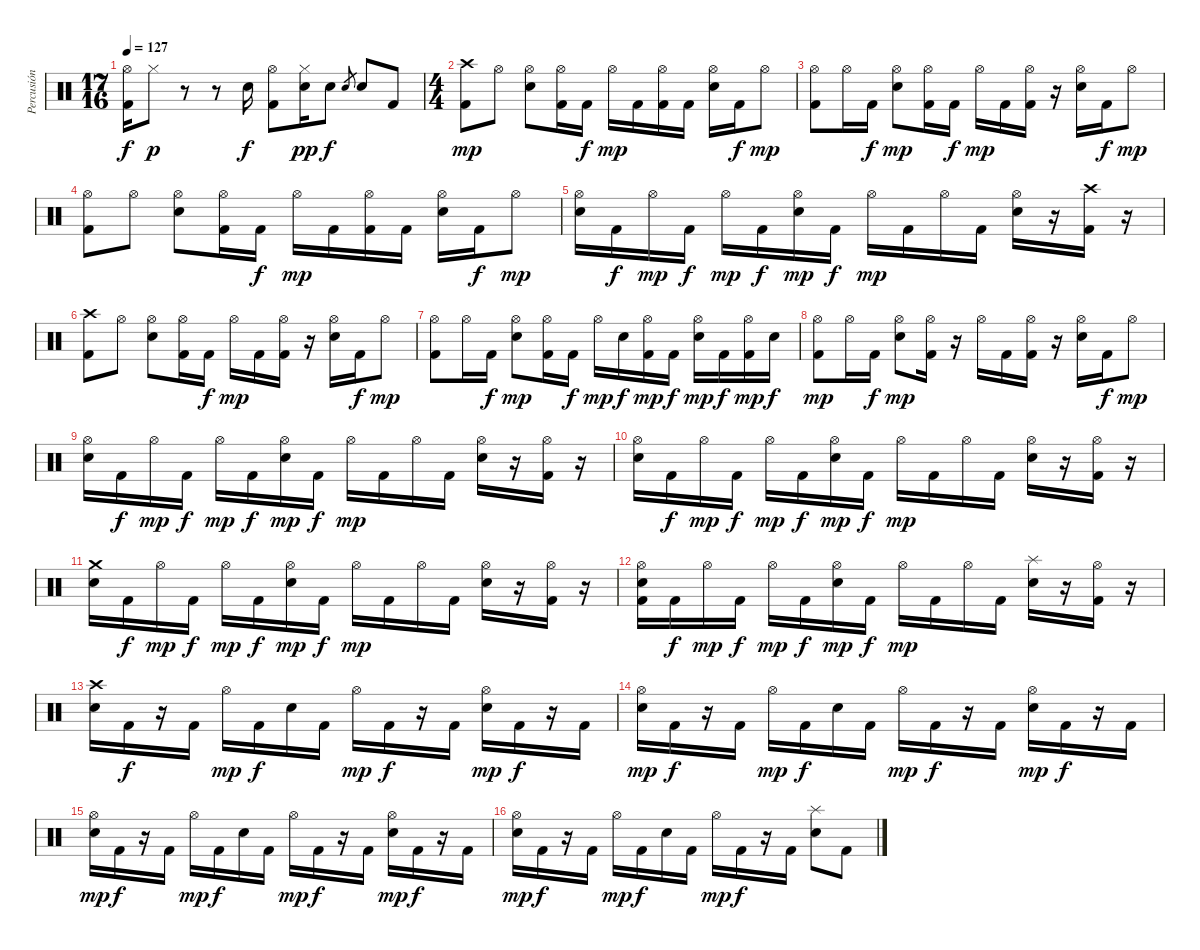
\track ("Percusión" "Percusión") {instrument percussion}
\staff {score}
\articulation defaults
\ts (17 16)
\tempo 127
\clef neutral
\ks c
("Hi-Hat (open)" "Kick (hit) 2").16{dy f} "Hi-Hat (closed)".8{dy p} r.8 r.8 "Electric Snare (hit)".16{dy f} ("Hi-Hat (open)" "Kick (hit) 2").8 ("Hi-Hat (closed)" "Electric Snare (hit)").16{dy pp} "Electric Snare (hit)".8{dy f} "Electric Snare (hit)".8{gr} "Electric Snare (hit)".8 "Kick (hit) 2".8 |
\ts (4 4)
("Crash high (hit)" "Kick (hit) 2").8{dy mp} "Hi-Hat (open)".8 ("Hi-Hat (open)" "Electric Snare (hit)").8 ("Hi-Hat (open)" "Kick (hit) 2").16 "Kick (hit) 2".16{dy f} "Hi-Hat (open)".16{dy mp} "Kick (hit) 2".16 ("Hi-Hat (open)" "Kick (hit) 2").16 "Kick (hit) 2".16 ("Hi-Hat (open)" "Electric Snare (hit)").16 "Kick (hit) 2".16{dy f} "Hi-Hat (open)".8{dy mp} |
("Hi-Hat (open)" "Kick (hit) 2").8 "Hi-Hat (open)".16 "Kick (hit) 2".16{dy f} ("Hi-Hat (open)" "Electric Snare (hit)").8{dy mp} ("Hi-Hat (open)" "Kick (hit) 2").16 "Kick (hit) 2".16{dy f} "Hi-Hat (open)".16{dy mp} "Kick (hit) 2".16 ("Hi-Hat (open)" "Kick (hit) 2").16 r.16 ("Hi-Hat (open)" "Electric Snare (hit)").16 "Kick (hit) 2".16{dy f} "Hi-Hat (open)".8{dy mp} |
("Hi-Hat (open)" "Kick (hit) 2").8 "Hi-Hat (open)".8 ("Hi-Hat (open)" "Electric Snare (hit)").8 ("Hi-Hat (open)" "Kick (hit) 2").16 "Kick (hit) 2".16{dy f} "Hi-Hat (open)".16{dy mp} "Kick (hit) 2".16 ("Hi-Hat (open)" "Kick (hit) 2").16 "Kick (hit) 2".16 ("Hi-Hat (open)" "Electric Snare (hit)").16 "Kick (hit) 2".16{dy f} "Hi-Hat (open)".8{dy mp} |
("Hi-Hat (open)" "Electric Snare (hit)").16 "Kick (hit) 2".16{dy f} "Hi-Hat (open)".16{dy mp} "Kick (hit) 2".16{dy f} "Hi-Hat (open)".16{dy mp} "Kick (hit) 2".16{dy f} ("Hi-Hat (open)" "Electric Snare (hit)").16{dy mp} "Kick (hit) 2".16{dy f} "Hi-Hat (open)".16{dy mp} "Kick (hit) 2".16 "Hi-Hat (open)".16 "Kick (hit) 2".16 ("Hi-Hat (open)" "Electric Snare (hit)").16 r.16 ("Crash high (hit)" "Kick (hit) 2").16 r.16 |
("Crash high (hit)" "Kick (hit) 2").8 "Hi-Hat (open)".8 ("Hi-Hat (open)" "Electric Snare (hit)").8 ("Hi-Hat (open)" "Kick (hit) 2").16 "Kick (hit) 2".16{dy f} "Hi-Hat (open)".16{dy mp} "Kick (hit) 2".16 ("Hi-Hat (open)" "Kick (hit) 2").16 r.16 ("Hi-Hat (open)" "Electric Snare (hit)").16 "Kick (hit) 2".16{dy f} "Hi-Hat (open)".8{dy mp} |
("Hi-Hat (open)" "Kick (hit) 2").8 "Hi-Hat (open)".16 "Kick (hit) 2".16{dy f} ("Hi-Hat (open)" "Electric Snare (hit)").8{dy mp} ("Hi-Hat (open)" "Kick (hit) 2").16 "Kick (hit) 2".16{dy f} "Hi-Hat (open)".16{dy mp} "Electric Snare (hit)".16{dy f} ("Hi-Hat (open)" "Kick (hit) 2").16{dy mp} "Kick (hit) 2".16{dy f} ("Hi-Hat (open)" "Electric Snare (hit)").16{dy mp} "Kick (hit) 2".16{dy f} ("Hi-Hat (open)" "Kick (hit) 2").16{dy mp} "Electric Snare (hit)".16{dy f} |
("Hi-Hat (open)" "Kick (hit) 2").8{dy mp} "Hi-Hat (open)".16 "Kick (hit) 2".16{dy f} ("Hi-Hat (open)" "Electric Snare (hit)").8{dy mp} ("Hi-Hat (open)" "Kick (hit) 2").16 r.16 "Hi-Hat (open)".16 "Kick (hit) 2".16 ("Hi-Hat (open)" "Kick (hit) 2").16 r.16 ("Hi-Hat (open)" "Electric Snare (hit)").16 "Kick (hit) 2".16{dy f} "Hi-Hat (open)".8{dy mp} |
("Hi-Hat (open)" "Electric Snare (hit)").16 "Kick (hit) 2".16{dy f} "Hi-Hat (open)".16{dy mp} "Kick (hit) 2".16{dy f} "Hi-Hat (open)".16{dy mp} "Kick (hit) 2".16{dy f} ("Hi-Hat (open)" "Electric Snare (hit)").16{dy mp} "Kick (hit) 2".16{dy f} "Hi-Hat (open)".16{dy mp} "Kick (hit) 2".16 "Hi-Hat (open)".16 "Kick (hit) 2".16 ("Hi-Hat (open)" "Electric Snare (hit)").16 r.16 ("Hi-Hat (open)" "Kick (hit) 2").16 r.16 |
("Hi-Hat (open)" "Electric Snare (hit)").16 "Kick (hit) 2".16{dy f} "Hi-Hat (open)".16{dy mp} "Kick (hit) 2".16{dy f} "Hi-Hat (open)".16{dy mp} "Kick (hit) 2".16{dy f} ("Hi-Hat (open)" "Electric Snare (hit)").16{dy mp} "Kick (hit) 2".16{dy f} "Hi-Hat (open)".16{dy mp} "Kick (hit) 2".16 "Hi-Hat (open)".16 "Kick (hit) 2".16 ("Hi-Hat (open)" "Electric Snare (hit)").16 r.16 ("Hi-Hat (open)" "Kick (hit) 2").16 r.16 |
("Crash medium (hit)" "Electric Snare (hit)").16 "Kick (hit) 2".16{dy f} "Hi-Hat (open)".16{dy mp} "Kick (hit) 2".16{dy f} "Hi-Hat (open)".16{dy mp} "Kick (hit) 2".16{dy f} ("Hi-Hat (open)" "Electric Snare (hit)").16{dy mp} "Kick (hit) 2".16{dy f} "Hi-Hat (open)".16{dy mp} "Kick (hit) 2".16 "Hi-Hat (open)".16 "Kick (hit) 2".16 ("Hi-Hat (open)" "Electric Snare (hit)").16 r.16 ("Hi-Hat (open)" "Kick (hit) 2").16 r.16 |
("Hi-Hat (open)" "Electric Snare (hit)" "Kick (hit) 2").16 "Kick (hit) 2".16{dy f} "Hi-Hat (open)".16{dy mp} "Kick (hit) 2".16{dy f} "Hi-Hat (open)".16{dy mp} "Kick (hit) 2".16{dy f} ("Hi-Hat (open)" "Electric Snare (hit)").16{dy mp} "Kick (hit) 2".16{dy f} "Hi-Hat (open)".16{dy mp} "Kick (hit) 2".16 "Hi-Hat (open)".16 "Kick (hit) 2".16 ("Splash (hit)" "Electric Snare (hit)").16 r.16 ("Hi-Hat (open)" "Kick (hit) 2").16 r.16 |
("Crash high (hit)" "Electric Snare (hit)").16 "Kick (hit) 2".16{dy f} r.16 "Kick (hit) 2".16 "Hi-Hat (open)".16{dy mp} "Kick (hit) 2".16{dy f} "Electric Snare (hit)".16 "Kick (hit) 2".16 "Hi-Hat (open)".16{dy mp} "Kick (hit) 2".16{dy f} r.16 "Kick (hit) 2".16 ("Hi-Hat (open)" "Electric Snare (hit)").16{dy mp} "Kick (hit) 2".16{dy f} r.16 "Kick (hit) 2".16 |
("Hi-Hat (open)" "Electric Snare (hit)").16{dy mp} "Kick (hit) 2".16{dy f} r.16 "Kick (hit) 2".16 "Hi-Hat (open)".16{dy mp} "Kick (hit) 2".16{dy f} "Electric Snare (hit)".16 "Kick (hit) 2".16 "Hi-Hat (open)".16{dy mp} "Kick (hit) 2".16{dy f} r.16 "Kick (hit) 2".16 ("Hi-Hat (open)" "Electric Snare (hit)").16{dy mp} "Kick (hit) 2".16{dy f} r.16 "Kick (hit) 2".16 |
("Hi-Hat (open)" "Electric Snare (hit)").16{dy mp} "Kick (hit) 2".16{dy f} r.16 "Kick (hit) 2".16 "Hi-Hat (open)".16{dy mp} "Kick (hit) 2".16{dy f} "Electric Snare (hit)".16 "Kick (hit) 2".16 "Hi-Hat (open)".16{dy mp} "Kick (hit) 2".16{dy f} r.16 "Kick (hit) 2".16 ("Hi-Hat (open)" "Electric Snare (hit)").16{dy mp} "Kick (hit) 2".16{dy f} r.16 "Kick (hit) 2".16 |
("Hi-Hat (open)" "Electric Snare (hit)").16{dy mp} "Kick (hit) 2".16{dy f} r.16 "Kick (hit) 2".16 "Hi-Hat (open)".16{dy mp} "Kick (hit) 2".16{dy f} "Electric Snare (hit)".16 "Kick (hit) 2".16 "Hi-Hat (open)".16{dy mp} "Kick (hit) 2".16{dy f} r.16 "Kick (hit) 2".16 ("Splash (hit)" "Electric Snare (hit)").8 "Kick (hit) 2".8
